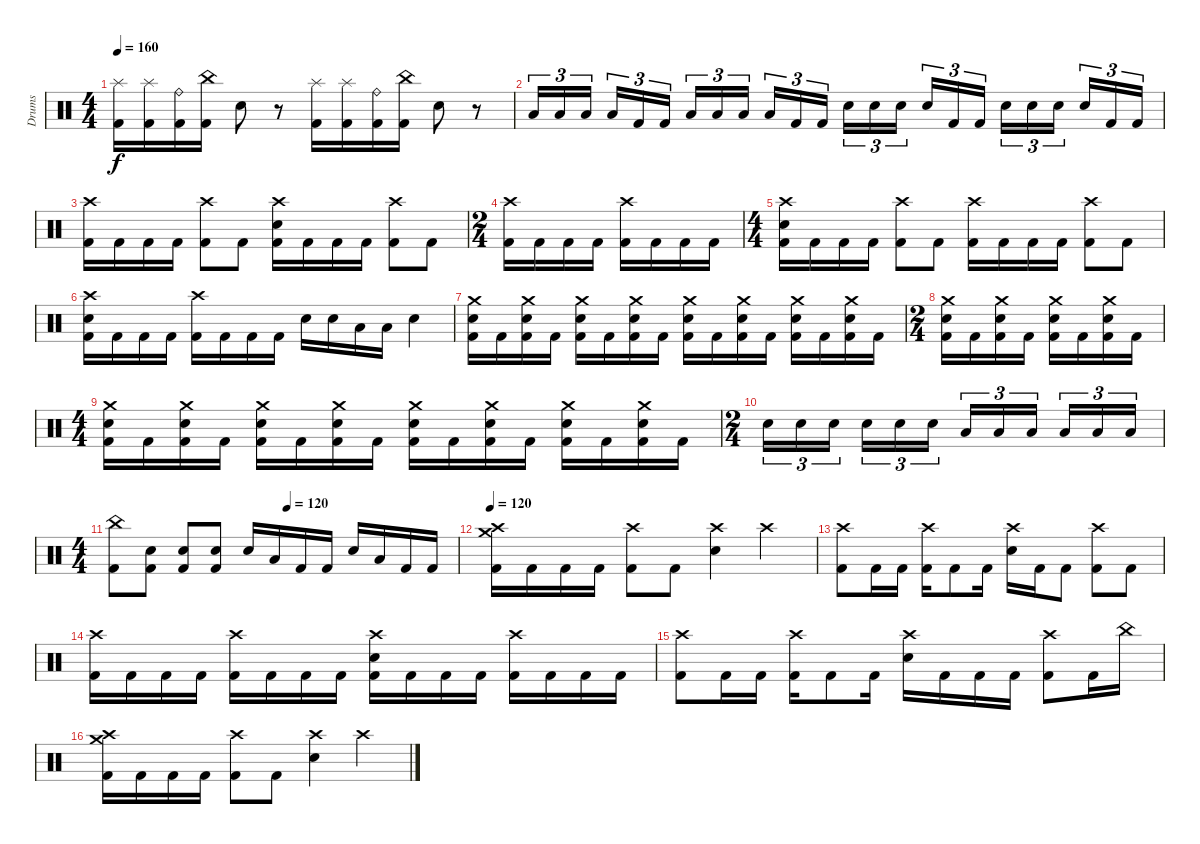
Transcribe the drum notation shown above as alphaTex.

\track ("Drums" "Drums") {instrument percussion}
\staff {score}
\articulation defaults
\ts (4 4)
\tempo 160
\clef neutral
\ks c
("Splash (hit)" "Kick (hit) 2").16{dy f} ("Splash (hit)" "Kick (hit) 2").16 ("Ride (bell)" "Kick (hit) 2").16 ("China (hit)" "Kick (hit) 2").16 "Electric Snare (hit)".8 r.8 ("Splash (hit)" "Kick (hit) 2").16 ("Splash (hit)" "Kick (hit) 2").16 ("Ride (bell)" "Kick (hit) 2").16 ("China (hit)" "Kick (hit) 2").16 "Electric Snare (hit)".8 r.8 |
"Low Tom (hit)".16{tu (3 2)} "Low Tom (hit)".16{tu (3 2)} "Low Tom (hit)".16{tu (3 2) beam splitsecondary} "Low Tom (hit)".16{tu (3 2)} "Kick (hit) 2".16{tu (3 2)} "Kick (hit) 2".16{tu (3 2)} "Low Tom (hit)".16{tu (3 2)} "Low Tom (hit)".16{tu (3 2)} "Low Tom (hit)".16{tu (3 2) beam splitsecondary} "Low Tom (hit)".16{tu (3 2)} "Kick (hit) 2".16{tu (3 2)} "Kick (hit) 2".16{tu (3 2)} "Electric Snare (hit)".16{tu (3 2)} "Electric Snare (hit)".16{tu (3 2)} "Electric Snare (hit)".16{tu (3 2) beam splitsecondary} "Electric Snare (hit)".16{tu (3 2)} "Kick (hit) 2".16{tu (3 2)} "Kick (hit) 2".16{tu (3 2)} "Electric Snare (hit)".16{tu (3 2)} "Electric Snare (hit)".16{tu (3 2)} "Electric Snare (hit)".16{tu (3 2) beam splitsecondary} "Electric Snare (hit)".16{tu (3 2)} "Kick (hit) 2".16{tu (3 2)} "Kick (hit) 2".16{tu (3 2)} |
("Crash high (hit)" "Kick (hit) 2").16 "Kick (hit) 2".16 "Kick (hit) 2".16 "Kick (hit) 2".16 ("Crash high (hit)" "Kick (hit) 2").8 "Kick (hit) 2".8 ("Crash high (hit)" "Electric Snare (hit)" "Kick (hit) 2").16 "Kick (hit) 2".16 "Kick (hit) 2".16 "Kick (hit) 2".16 ("Crash high (hit)" "Kick (hit) 2").8 "Kick (hit) 2".8 |
\ts (2 4)
("Crash high (hit)" "Kick (hit) 2").16 "Kick (hit) 2".16 "Kick (hit) 2".16 "Kick (hit) 2".16 ("Crash high (hit)" "Kick (hit) 2").16 "Kick (hit) 2".16 "Kick (hit) 2".16 "Kick (hit) 2".16 |
\ts (4 4)
("Crash high (hit)" "Electric Snare (hit)" "Kick (hit) 2").16 "Kick (hit) 2".16 "Kick (hit) 2".16 "Kick (hit) 2".16 ("Crash high (hit)" "Kick (hit) 2").8 "Kick (hit) 2".8 ("Crash high (hit)" "Kick (hit) 2").16 "Kick (hit) 2".16 "Kick (hit) 2".16 "Kick (hit) 2".16 ("Crash high (hit)" "Kick (hit) 2").8 "Kick (hit) 2".8 |
("Crash high (hit)" "Electric Snare (hit)" "Kick (hit) 2").16 "Kick (hit) 2".16 "Kick (hit) 2".16 "Kick (hit) 2".16 ("Crash high (hit)" "Kick (hit) 2").16 "Kick (hit) 2".16 "Kick (hit) 2".16 "Kick (hit) 2".16 "Electric Snare (hit)".16 "Electric Snare (hit)".16 "Low Tom (hit)".16 "Low Tom (hit)".16 "Electric Snare (hit)".4 |
("Crash medium (hit)" "Electric Snare (hit)" "Kick (hit) 2").16 "Kick (hit) 2".16 ("Crash medium (hit)" "Electric Snare (hit)" "Kick (hit) 2").16 "Kick (hit) 2".16 ("Crash medium (hit)" "Electric Snare (hit)" "Kick (hit) 2").16 "Kick (hit) 2".16 ("Crash medium (hit)" "Electric Snare (hit)" "Kick (hit) 2").16 "Kick (hit) 2".16 ("Crash medium (hit)" "Electric Snare (hit)" "Kick (hit) 2").16 "Kick (hit) 2".16 ("Crash medium (hit)" "Electric Snare (hit)" "Kick (hit) 2").16 "Kick (hit) 2".16 ("Crash medium (hit)" "Electric Snare (hit)" "Kick (hit) 2").16 "Kick (hit) 2".16 ("Crash medium (hit)" "Electric Snare (hit)" "Kick (hit) 2").16 "Kick (hit) 2".16 |
\ts (2 4)
("Crash medium (hit)" "Electric Snare (hit)" "Kick (hit) 2").16 "Kick (hit) 2".16 ("Crash medium (hit)" "Electric Snare (hit)" "Kick (hit) 2").16 "Kick (hit) 2".16 ("Crash medium (hit)" "Electric Snare (hit)" "Kick (hit) 2").16 "Kick (hit) 2".16 ("Crash medium (hit)" "Electric Snare (hit)" "Kick (hit) 2").16 "Kick (hit) 2".16 |
\ts (4 4)
("Crash medium (hit)" "Electric Snare (hit)" "Kick (hit) 2").16 "Kick (hit) 2".16 ("Crash medium (hit)" "Electric Snare (hit)" "Kick (hit) 2").16 "Kick (hit) 2".16 ("Crash medium (hit)" "Electric Snare (hit)" "Kick (hit) 2").16 "Kick (hit) 2".16 ("Crash medium (hit)" "Electric Snare (hit)" "Kick (hit) 2").16 "Kick (hit) 2".16 ("Crash medium (hit)" "Electric Snare (hit)" "Kick (hit) 2").16 "Kick (hit) 2".16 ("Crash medium (hit)" "Electric Snare (hit)" "Kick (hit) 2").16 "Kick (hit) 2".16 ("Crash medium (hit)" "Electric Snare (hit)" "Kick (hit) 2").16 "Kick (hit) 2".16 ("Crash medium (hit)" "Electric Snare (hit)" "Kick (hit) 2").16 "Kick (hit) 2".16 |
\ts (2 4)
"Electric Snare (hit)".16{tu (3 2)} "Electric Snare (hit)".16{tu (3 2)} "Electric Snare (hit)".16{tu (3 2) beam splitsecondary} "Electric Snare (hit)".16{tu (3 2)} "Electric Snare (hit)".16{tu (3 2)} "Electric Snare (hit)".16{tu (3 2)} "Low Tom (hit)".16{tu (3 2)} "Low Tom (hit)".16{tu (3 2)} "Low Tom (hit)".16{tu (3 2) beam splitsecondary} "Low Tom (hit)".16{tu (3 2)} "Low Tom (hit)".16{tu (3 2)} "Low Tom (hit)".16{tu (3 2)} |
\ts (4 4)
\tempo (120 0.5)
("China (hit)" "Kick (hit) 2").8 ("Electric Snare (hit)" "Kick (hit) 2").8 ("Electric Snare (hit)" "Kick (hit) 2").8 ("Electric Snare (hit)" "Kick (hit) 2").8 "Electric Snare (hit)".16 "Low Tom (hit)".16 "Kick (hit) 2".16 "Kick (hit) 2".16 "Electric Snare (hit)".16 "Low Tom (hit)".16 "Kick (hit) 2".16 "Kick (hit) 2".16 |
\tempo 120
("Crash high (hit)" "Crash medium (hit)" "Kick (hit) 2").16 "Kick (hit) 2".16 "Kick (hit) 2".16 "Kick (hit) 2".16 ("Crash high (hit)" "Kick (hit) 2").8 "Kick (hit) 2".8 ("Crash high (hit)" "Electric Snare (hit)").4 "Crash high (hit)".4 |
("Crash high (hit)" "Kick (hit) 2").8 "Kick (hit) 2".16 "Kick (hit) 2".16 ("Crash high (hit)" "Kick (hit) 2").16 "Kick (hit) 2".8 "Kick (hit) 2".16 ("Crash high (hit)" "Electric Snare (hit)").16 "Kick (hit) 2".16 "Kick (hit) 2".8 ("Crash high (hit)" "Kick (hit) 2").8 "Kick (hit) 2".8 |
("Crash high (hit)" "Kick (hit) 2").16 "Kick (hit) 2".16 "Kick (hit) 2".16 "Kick (hit) 2".16 ("Crash high (hit)" "Kick (hit) 2").16 "Kick (hit) 2".16 "Kick (hit) 2".16 "Kick (hit) 2".16 ("Crash high (hit)" "Electric Snare (hit)" "Kick (hit) 2").16 "Kick (hit) 2".16 "Kick (hit) 2".16 "Kick (hit) 2".16 ("Crash high (hit)" "Kick (hit) 2").16 "Kick (hit) 2".16 "Kick (hit) 2".16 "Kick (hit) 2".16 |
("Crash high (hit)" "Kick (hit) 2").8 "Kick (hit) 2".16 "Kick (hit) 2".16 ("Crash high (hit)" "Kick (hit) 2").16 "Kick (hit) 2".8 "Kick (hit) 2".16 ("Crash high (hit)" "Electric Snare (hit)").16 "Kick (hit) 2".16 "Kick (hit) 2".16 "Kick (hit) 2".16 ("Crash high (hit)" "Kick (hit) 2").8 "Kick (hit) 2".16 "China (hit)".16 |
("Crash high (hit)" "Crash medium (hit)" "Kick (hit) 2").16 "Kick (hit) 2".16 "Kick (hit) 2".16 "Kick (hit) 2".16 ("Crash high (hit)" "Kick (hit) 2").8 "Kick (hit) 2".8 ("Crash high (hit)" "Electric Snare (hit)").4 "Crash high (hit)".4
